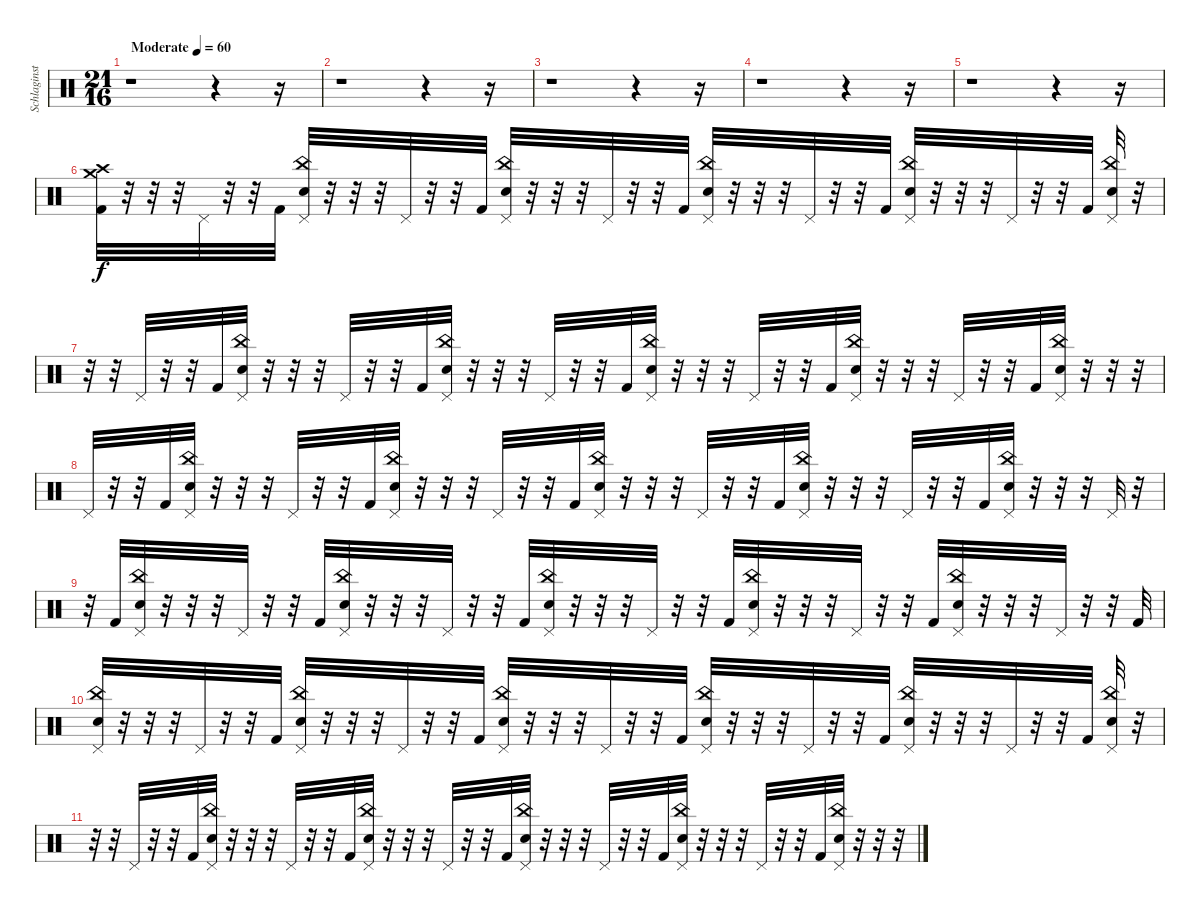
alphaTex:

\track ("Schlaginstrumente - Auswahl" "Schlaginst") {instrument percussion}
\staff {score}
\articulation defaults
\ts (21 16)
\tempo (60 "Moderate")
\clef neutral
\ks c
r.1{dy f} r.4 r.16 |
r.1 r.4 r.16 |
r.1 r.4 r.16 |
r.1 r.4 r.16 |
r.1 r.4 r.16 |
("Crash medium (hit)" "Crash high (hit)" "Kick (hit) 2").32 r.32 r.32 r.32 "Pedal Hi-Hat (hit)".32 r.32 r.32 "Kick (hit) 2".32 ("China (hit)" "Electric Snare (hit)" "Pedal Hi-Hat (hit)").32 r.32 r.32 r.32 "Pedal Hi-Hat (hit)".32 r.32 r.32 "Kick (hit) 2".32 ("China (hit)" "Electric Snare (hit)" "Pedal Hi-Hat (hit)").32 r.32 r.32 r.32 "Pedal Hi-Hat (hit)".32 r.32 r.32 "Kick (hit) 2".32 ("China (hit)" "Electric Snare (hit)" "Pedal Hi-Hat (hit)").32 r.32 r.32 r.32 "Pedal Hi-Hat (hit)".32 r.32 r.32 "Kick (hit) 2".32 ("China (hit)" "Electric Snare (hit)" "Pedal Hi-Hat (hit)").32 r.32 r.32 r.32 "Pedal Hi-Hat (hit)".32 r.32 r.32 "Kick (hit) 2".32 ("China (hit)" "Electric Snare (hit)" "Pedal Hi-Hat (hit)").32 r.32 |
r.32 r.32 "Pedal Hi-Hat (hit)".32 r.32 r.32 "Kick (hit) 2".32 ("China (hit)" "Electric Snare (hit)" "Pedal Hi-Hat (hit)").32 r.32 r.32 r.32 "Pedal Hi-Hat (hit)".32 r.32 r.32 "Kick (hit) 2".32 ("China (hit)" "Electric Snare (hit)" "Pedal Hi-Hat (hit)").32 r.32 r.32 r.32 "Pedal Hi-Hat (hit)".32 r.32 r.32 "Kick (hit) 2".32 ("China (hit)" "Electric Snare (hit)" "Pedal Hi-Hat (hit)").32 r.32 r.32 r.32 "Pedal Hi-Hat (hit)".32 r.32 r.32 "Kick (hit) 2".32 ("China (hit)" "Electric Snare (hit)" "Pedal Hi-Hat (hit)").32 r.32 r.32 r.32 "Pedal Hi-Hat (hit)".32 r.32 r.32 "Kick (hit) 2".32 ("China (hit)" "Electric Snare (hit)" "Pedal Hi-Hat (hit)").32 r.32 r.32 r.32 |
"Pedal Hi-Hat (hit)".32 r.32 r.32 "Kick (hit) 2".32 ("China (hit)" "Electric Snare (hit)" "Pedal Hi-Hat (hit)").32 r.32 r.32 r.32 "Pedal Hi-Hat (hit)".32 r.32 r.32 "Kick (hit) 2".32 ("China (hit)" "Electric Snare (hit)" "Pedal Hi-Hat (hit)").32 r.32 r.32 r.32 "Pedal Hi-Hat (hit)".32 r.32 r.32 "Kick (hit) 2".32 ("China (hit)" "Electric Snare (hit)" "Pedal Hi-Hat (hit)").32 r.32 r.32 r.32 "Pedal Hi-Hat (hit)".32 r.32 r.32 "Kick (hit) 2".32 ("China (hit)" "Electric Snare (hit)" "Pedal Hi-Hat (hit)").32 r.32 r.32 r.32 "Pedal Hi-Hat (hit)".32 r.32 r.32 "Kick (hit) 2".32 ("China (hit)" "Electric Snare (hit)" "Pedal Hi-Hat (hit)").32 r.32 r.32 r.32 "Pedal Hi-Hat (hit)".32 r.32 |
r.32 "Kick (hit) 2".32 ("China (hit)" "Electric Snare (hit)" "Pedal Hi-Hat (hit)").32 r.32 r.32 r.32 "Pedal Hi-Hat (hit)".32 r.32 r.32 "Kick (hit) 2".32 ("China (hit)" "Electric Snare (hit)" "Pedal Hi-Hat (hit)").32 r.32 r.32 r.32 "Pedal Hi-Hat (hit)".32 r.32 r.32 "Kick (hit) 2".32 ("China (hit)" "Electric Snare (hit)" "Pedal Hi-Hat (hit)").32 r.32 r.32 r.32 "Pedal Hi-Hat (hit)".32 r.32 r.32 "Kick (hit) 2".32 ("China (hit)" "Electric Snare (hit)" "Pedal Hi-Hat (hit)").32 r.32 r.32 r.32 "Pedal Hi-Hat (hit)".32 r.32 r.32 "Kick (hit) 2".32 ("China (hit)" "Electric Snare (hit)" "Pedal Hi-Hat (hit)").32 r.32 r.32 r.32 "Pedal Hi-Hat (hit)".32 r.32 r.32 "Kick (hit) 2".32 |
("China (hit)" "Electric Snare (hit)" "Pedal Hi-Hat (hit)").32 r.32 r.32 r.32 "Pedal Hi-Hat (hit)".32 r.32 r.32 "Kick (hit) 2".32 ("China (hit)" "Electric Snare (hit)" "Pedal Hi-Hat (hit)").32 r.32 r.32 r.32 "Pedal Hi-Hat (hit)".32 r.32 r.32 "Kick (hit) 2".32 ("China (hit)" "Electric Snare (hit)" "Pedal Hi-Hat (hit)").32 r.32 r.32 r.32 "Pedal Hi-Hat (hit)".32 r.32 r.32 "Kick (hit) 2".32 ("China (hit)" "Electric Snare (hit)" "Pedal Hi-Hat (hit)").32 r.32 r.32 r.32 "Pedal Hi-Hat (hit)".32 r.32 r.32 "Kick (hit) 2".32 ("China (hit)" "Electric Snare (hit)" "Pedal Hi-Hat (hit)").32 r.32 r.32 r.32 "Pedal Hi-Hat (hit)".32 r.32 r.32 "Kick (hit) 2".32 ("China (hit)" "Electric Snare (hit)" "Pedal Hi-Hat (hit)").32 r.32 |
r.32 r.32 "Pedal Hi-Hat (hit)".32 r.32 r.32 "Kick (hit) 2".32 ("China (hit)" "Electric Snare (hit)" "Pedal Hi-Hat (hit)").32 r.32 r.32 r.32 "Pedal Hi-Hat (hit)".32 r.32 r.32 "Kick (hit) 2".32 ("China (hit)" "Electric Snare (hit)" "Pedal Hi-Hat (hit)").32 r.32 r.32 r.32 "Pedal Hi-Hat (hit)".32 r.32 r.32 "Kick (hit) 2".32 ("China (hit)" "Electric Snare (hit)" "Pedal Hi-Hat (hit)").32 r.32 r.32 r.32 "Pedal Hi-Hat (hit)".32 r.32 r.32 "Kick (hit) 2".32 ("China (hit)" "Electric Snare (hit)" "Pedal Hi-Hat (hit)").32 r.32 r.32 r.32 "Pedal Hi-Hat (hit)".32 r.32 r.32 "Kick (hit) 2".32 ("China (hit)" "Electric Snare (hit)" "Pedal Hi-Hat (hit)").32 r.32 r.32 r.32
